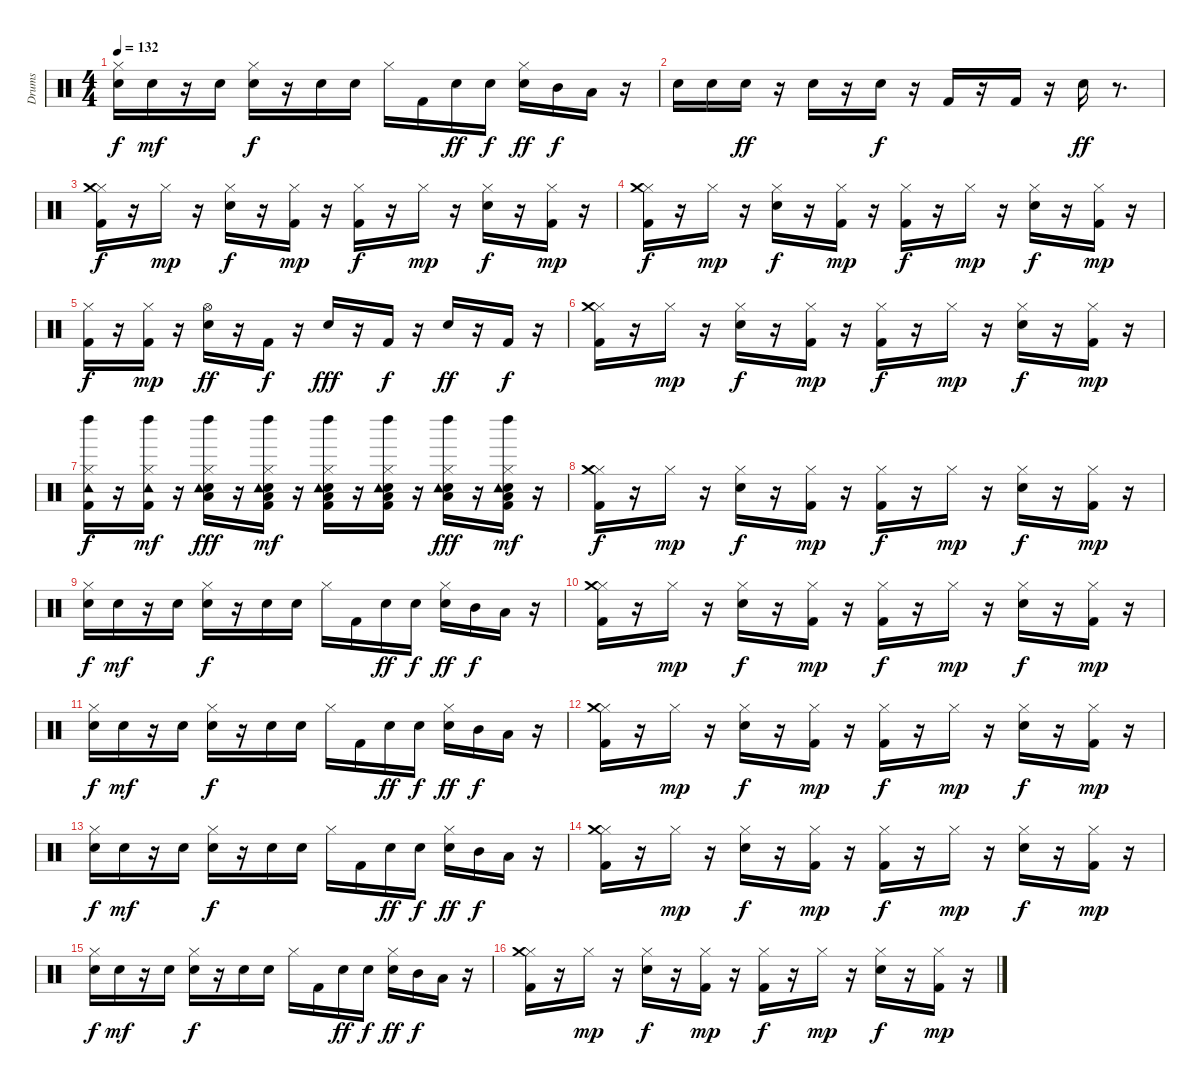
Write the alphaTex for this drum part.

\track ("Drums" "Drums") {instrument percussion}
\staff {score}
\articulation defaults
\ts (4 4)
\tempo 132
\clef neutral
\ks c
("Snare (hit) 2" "Hi-Hat (closed)").16{dy f} "Snare (hit) 2".16{dy mf} r.16 "Snare (hit) 2".16 ("Snare (hit) 2" "Hi-Hat (closed)").16{dy f} r.16 "Snare (hit) 2".16 "Snare (hit) 2".16 "Hi-Hat (closed)".16 "Kick (hit) 2".16 "Snare (hit) 2".16{dy ff} "Snare (hit) 2".16{dy f} ("Snare (hit) 2" "Hi-Hat (closed)").16{dy ff} "Mid Tom (hit)".16{dy f} "Low Floor Tom (hit)".16 r.16 |
"Snare (hit) 2".16 "Snare (hit) 2".16 "Snare (hit) 2".16{dy ff} r.16 "Snare (hit) 2".16 r.16 "Snare (hit) 2".16{dy f} r.16 "Kick (hit) 2".16 r.16 "Kick (hit) 2".16 r.16 "Snare (hit) 2".16{dy ff} r.8{d} |
("Kick (hit) 2" "Hi-Hat (closed)" "Crash medium (hit)").16{dy f} r.16 "Hi-Hat (closed)".16{dy mp} r.16 ("Snare (hit) 2" "Hi-Hat (closed)").16{dy f} r.16 ("Kick (hit) 2" "Hi-Hat (closed)").16{dy mp} r.16 ("Kick (hit) 2" "Hi-Hat (closed)").16{dy f} r.16 "Hi-Hat (closed)".16{dy mp} r.16 ("Snare (hit) 2" "Hi-Hat (closed)").16{dy f} r.16 ("Kick (hit) 2" "Hi-Hat (closed)").16{dy mp} r.16 |
("Kick (hit) 2" "Hi-Hat (closed)" "Crash medium (hit)").16{dy f} r.16 "Hi-Hat (closed)".16{dy mp} r.16 ("Snare (hit) 2" "Hi-Hat (closed)").16{dy f} r.16 ("Kick (hit) 2" "Hi-Hat (closed)").16{dy mp} r.16 ("Kick (hit) 2" "Hi-Hat (closed)").16{dy f} r.16 "Hi-Hat (closed)".16{dy mp} r.16 ("Snare (hit) 2" "Hi-Hat (closed)").16{dy f} r.16 ("Kick (hit) 2" "Hi-Hat (closed)").16{dy mp} r.16 |
("Kick (hit) 2" "Hi-Hat (closed)").16{dy f} r.16 ("Kick (hit) 2" "Hi-Hat (closed)").16{dy mp} r.16 ("Snare (hit) 2" "Hi-Hat (open)").16{dy ff} r.16 "Kick (hit) 2".16{dy f} r.16 "Snare (hit) 2".16{dy fff} r.16 "Kick (hit) 2".16{dy f} r.16 "Snare (hit) 2".16{dy ff} r.16 "Kick (hit) 2".16{dy f} r.16 |
("Kick (hit) 2" "Hi-Hat (closed)" "Crash medium (hit)").16 r.16 "Hi-Hat (closed)".16{dy mp} r.16 ("Snare (hit) 2" "Hi-Hat (closed)").16{dy f} r.16 ("Kick (hit) 2" "Hi-Hat (closed)").16{dy mp} r.16 ("Kick (hit) 2" "Hi-Hat (closed)").16{dy f} r.16 "Hi-Hat (closed)".16{dy mp} r.16 ("Snare (hit) 2" "Hi-Hat (closed)").16{dy f} r.16 ("Kick (hit) 2" "Hi-Hat (closed)").16{dy mp} r.16 |
("Kick (hit) 2" "Hi-Hat (closed)" "Tambourine (hit)" "Left Maraca (hit)").16{dy f} r.16 ("Kick (hit) 2" "Hi-Hat (closed)" "Tambourine (hit)" "Left Maraca (hit)").16{dy mf} r.16 ("Snare (hit) 2" "Hi-Hat (closed)" "Low Floor Tom (hit)" "Tambourine (hit)" "Left Maraca (hit)").16{dy fff} r.16 ("Kick (hit) 2" "Snare (hit) 2" "Hi-Hat (closed)" "Low Floor Tom (hit)" "Tambourine (hit)" "Left Maraca (hit)").16{dy mf} r.16 ("Kick (hit) 2" "Snare (hit) 2" "Hi-Hat (closed)" "Low Floor Tom (hit)" "Tambourine (hit)" "Left Maraca (hit)").16 r.16 ("Kick (hit) 2" "Snare (hit) 2" "Hi-Hat (closed)" "Low Floor Tom (hit)" "Tambourine (hit)" "Left Maraca (hit)").16 r.16 ("Snare (hit) 2" "Hi-Hat (closed)" "Low Floor Tom (hit)" "Tambourine (hit)" "Left Maraca (hit)").16{dy fff} r.16 ("Kick (hit) 2" "Snare (hit) 2" "Hi-Hat (closed)" "Low Floor Tom (hit)" "Tambourine (hit)" "Left Maraca (hit)").16{dy mf} r.16 |
("Kick (hit) 2" "Hi-Hat (closed)" "Crash medium (hit)").16{dy f} r.16 "Hi-Hat (closed)".16{dy mp} r.16 ("Snare (hit) 2" "Hi-Hat (closed)").16{dy f} r.16 ("Kick (hit) 2" "Hi-Hat (closed)").16{dy mp} r.16 ("Kick (hit) 2" "Hi-Hat (closed)").16{dy f} r.16 "Hi-Hat (closed)".16{dy mp} r.16 ("Snare (hit) 2" "Hi-Hat (closed)").16{dy f} r.16 ("Kick (hit) 2" "Hi-Hat (closed)").16{dy mp} r.16 |
("Snare (hit) 2" "Hi-Hat (closed)").16{dy f} "Snare (hit) 2".16{dy mf} r.16 "Snare (hit) 2".16 ("Snare (hit) 2" "Hi-Hat (closed)").16{dy f} r.16 "Snare (hit) 2".16 "Snare (hit) 2".16 "Hi-Hat (closed)".16 "Kick (hit) 2".16 "Snare (hit) 2".16{dy ff} "Snare (hit) 2".16{dy f} ("Snare (hit) 2" "Hi-Hat (closed)").16{dy ff} "Mid Tom (hit)".16{dy f} "Low Floor Tom (hit)".16 r.16 |
("Kick (hit) 2" "Hi-Hat (closed)" "Crash medium (hit)").16 r.16 "Hi-Hat (closed)".16{dy mp} r.16 ("Snare (hit) 2" "Hi-Hat (closed)").16{dy f} r.16 ("Kick (hit) 2" "Hi-Hat (closed)").16{dy mp} r.16 ("Kick (hit) 2" "Hi-Hat (closed)").16{dy f} r.16 "Hi-Hat (closed)".16{dy mp} r.16 ("Snare (hit) 2" "Hi-Hat (closed)").16{dy f} r.16 ("Kick (hit) 2" "Hi-Hat (closed)").16{dy mp} r.16 |
("Snare (hit) 2" "Hi-Hat (closed)").16{dy f} "Snare (hit) 2".16{dy mf} r.16 "Snare (hit) 2".16 ("Snare (hit) 2" "Hi-Hat (closed)").16{dy f} r.16 "Snare (hit) 2".16 "Snare (hit) 2".16 "Hi-Hat (closed)".16 "Kick (hit) 2".16 "Snare (hit) 2".16{dy ff} "Snare (hit) 2".16{dy f} ("Snare (hit) 2" "Hi-Hat (closed)").16{dy ff} "Mid Tom (hit)".16{dy f} "Low Floor Tom (hit)".16 r.16 |
("Kick (hit) 2" "Hi-Hat (closed)" "Crash medium (hit)").16 r.16 "Hi-Hat (closed)".16{dy mp} r.16 ("Snare (hit) 2" "Hi-Hat (closed)").16{dy f} r.16 ("Kick (hit) 2" "Hi-Hat (closed)").16{dy mp} r.16 ("Kick (hit) 2" "Hi-Hat (closed)").16{dy f} r.16 "Hi-Hat (closed)".16{dy mp} r.16 ("Snare (hit) 2" "Hi-Hat (closed)").16{dy f} r.16 ("Kick (hit) 2" "Hi-Hat (closed)").16{dy mp} r.16 |
("Snare (hit) 2" "Hi-Hat (closed)").16{dy f} "Snare (hit) 2".16{dy mf} r.16 "Snare (hit) 2".16 ("Snare (hit) 2" "Hi-Hat (closed)").16{dy f} r.16 "Snare (hit) 2".16 "Snare (hit) 2".16 "Hi-Hat (closed)".16 "Kick (hit) 2".16 "Snare (hit) 2".16{dy ff} "Snare (hit) 2".16{dy f} ("Snare (hit) 2" "Hi-Hat (closed)").16{dy ff} "Mid Tom (hit)".16{dy f} "Low Floor Tom (hit)".16 r.16 |
("Kick (hit) 2" "Hi-Hat (closed)" "Crash medium (hit)").16 r.16 "Hi-Hat (closed)".16{dy mp} r.16 ("Snare (hit) 2" "Hi-Hat (closed)").16{dy f} r.16 ("Kick (hit) 2" "Hi-Hat (closed)").16{dy mp} r.16 ("Kick (hit) 2" "Hi-Hat (closed)").16{dy f} r.16 "Hi-Hat (closed)".16{dy mp} r.16 ("Snare (hit) 2" "Hi-Hat (closed)").16{dy f} r.16 ("Kick (hit) 2" "Hi-Hat (closed)").16{dy mp} r.16 |
("Snare (hit) 2" "Hi-Hat (closed)").16{dy f} "Snare (hit) 2".16{dy mf} r.16 "Snare (hit) 2".16 ("Snare (hit) 2" "Hi-Hat (closed)").16{dy f} r.16 "Snare (hit) 2".16 "Snare (hit) 2".16 "Hi-Hat (closed)".16 "Kick (hit) 2".16 "Snare (hit) 2".16{dy ff} "Snare (hit) 2".16{dy f} ("Snare (hit) 2" "Hi-Hat (closed)").16{dy ff} "Mid Tom (hit)".16{dy f} "Low Floor Tom (hit)".16 r.16 |
("Kick (hit) 2" "Hi-Hat (closed)" "Crash medium (hit)").16 r.16 "Hi-Hat (closed)".16{dy mp} r.16 ("Snare (hit) 2" "Hi-Hat (closed)").16{dy f} r.16 ("Kick (hit) 2" "Hi-Hat (closed)").16{dy mp} r.16 ("Kick (hit) 2" "Hi-Hat (closed)").16{dy f} r.16 "Hi-Hat (closed)".16{dy mp} r.16 ("Snare (hit) 2" "Hi-Hat (closed)").16{dy f} r.16 ("Kick (hit) 2" "Hi-Hat (closed)").16{dy mp} r.16
